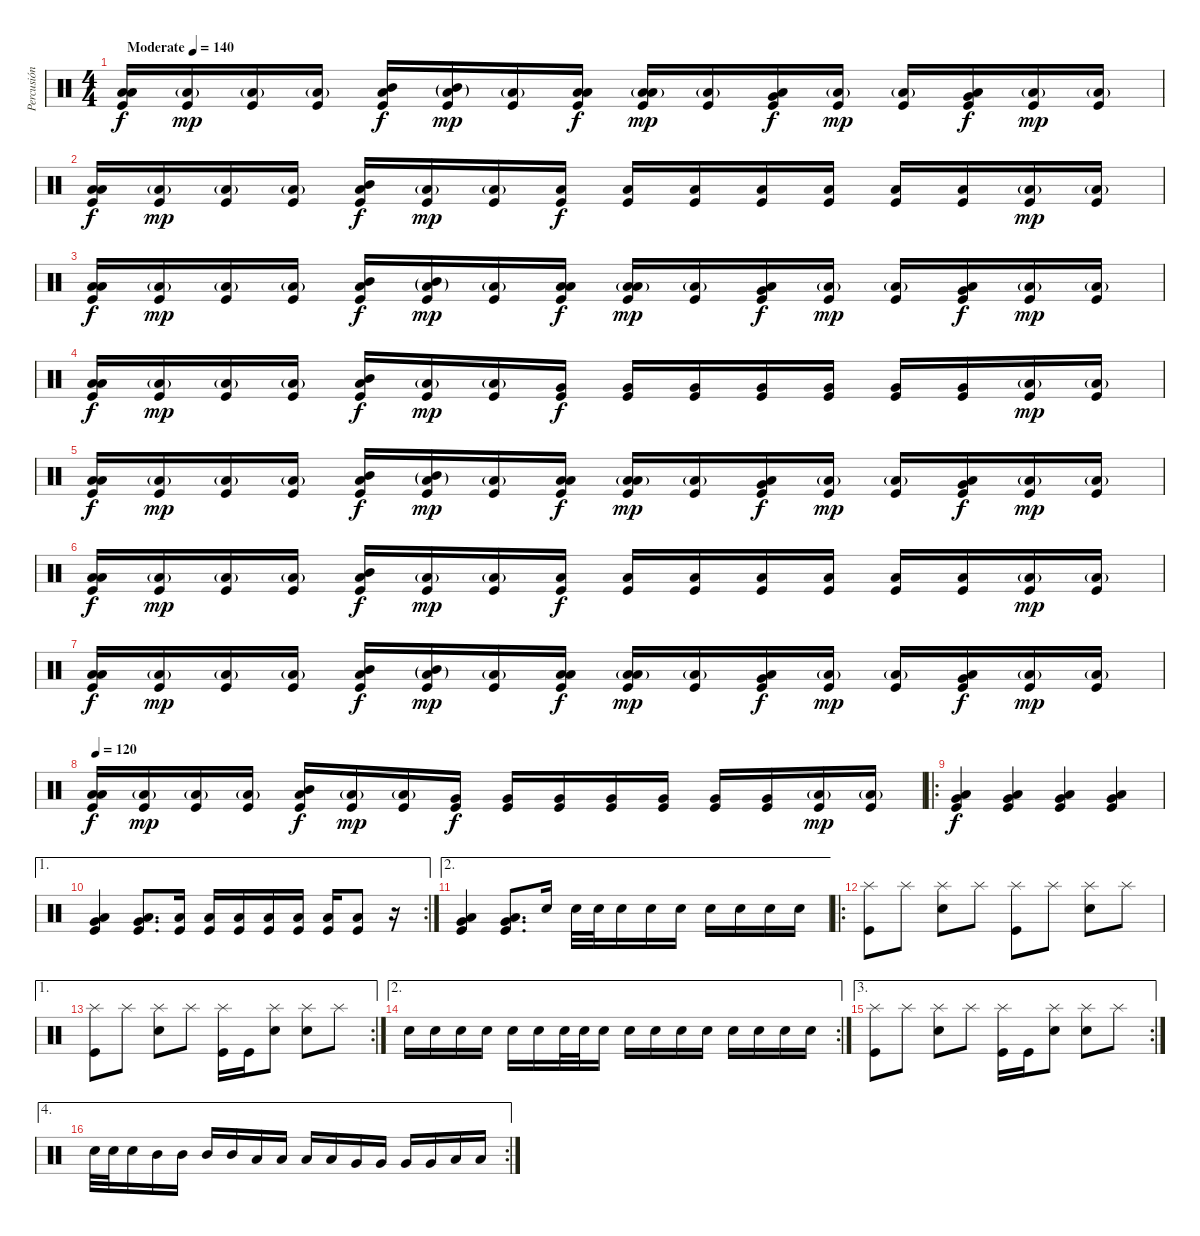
\track ("Percusión" "Percusión") {instrument percussion}
\staff {score}
\articulation defaults
\ts (4 4)
\tempo (140 "Moderate")
\clef neutral
\ks c
("Low Floor Tom (hit)" "Low Floor Tom (hit)" "Kick (hit)").16{bd 480 dy f} ("Low Floor Tom (hit)"{g} "Kick (hit)").16{dy mp} ("Low Floor Tom (hit)"{g} "Kick (hit)").16 ("Low Floor Tom (hit)"{g} "Kick (hit)").16 ("Mid Tom (hit)" "Low Floor Tom (hit)" "Kick (hit)").16{bd 480 dy f} ("Mid Tom (hit)"{g} "Low Floor Tom (hit)"{g} "Kick (hit)").16{dy mp} ("Low Floor Tom (hit)"{g} "Kick (hit)").16 ("Low Tom (hit)" "Low Floor Tom (hit)" "Kick (hit)").16{bd 480 dy f} ("Low Tom (hit)"{g} "Low Floor Tom (hit)" "Kick (hit)").16{dy mp} ("Low Floor Tom (hit)"{g} "Kick (hit)").16 ("Very Low Tom (hit)" "Low Floor Tom (hit)" "Kick (hit)").16{bd 480 dy f} ("Low Floor Tom (hit)"{g} "Kick (hit)").16{dy mp} ("Low Floor Tom (hit)"{g} "Kick (hit)").16 ("Very Low Tom (hit)" "Low Floor Tom (hit)" "Kick (hit)").16{bd 480 dy f} ("Low Floor Tom (hit)"{g} "Kick (hit)").16{dy mp} ("Low Floor Tom (hit)"{g} "Kick (hit)").16 |
("Low Floor Tom (hit)" "Low Floor Tom (hit)" "Kick (hit)").16{bd 480 dy f} ("Low Floor Tom (hit)"{g} "Kick (hit)").16{dy mp} ("Low Floor Tom (hit)"{g} "Kick (hit)").16 ("Low Floor Tom (hit)"{g} "Kick (hit)").16 ("Mid Tom (hit)" "Low Floor Tom (hit)" "Kick (hit)").16{bd 480 dy f} ("Low Floor Tom (hit)"{g} "Kick (hit)").16{dy mp} ("Low Floor Tom (hit)"{g} "Kick (hit)").16 ("Low Floor Tom (hit)" "Kick (hit)").16{dy f} ("Low Floor Tom (hit)" "Kick (hit)").16 ("Low Floor Tom (hit)" "Kick (hit)").16 ("Low Floor Tom (hit)" "Kick (hit)").16 ("Low Floor Tom (hit)" "Kick (hit)").16 ("Low Floor Tom (hit)" "Kick (hit)").16 ("Low Floor Tom (hit)" "Kick (hit)").16 ("Low Floor Tom (hit)"{g} "Kick (hit)").16{dy mp} ("Low Floor Tom (hit)"{g} "Kick (hit)").16 |
("Low Floor Tom (hit)" "Low Floor Tom (hit)" "Kick (hit)").16{bd 480 dy f} ("Low Floor Tom (hit)"{g} "Kick (hit)").16{dy mp} ("Low Floor Tom (hit)"{g} "Kick (hit)").16 ("Low Floor Tom (hit)"{g} "Kick (hit)").16 ("Mid Tom (hit)" "Low Floor Tom (hit)" "Kick (hit)").16{bd 480 dy f} ("Mid Tom (hit)"{g} "Low Floor Tom (hit)"{g} "Kick (hit)").16{dy mp} ("Low Floor Tom (hit)"{g} "Kick (hit)").16 ("Low Tom (hit)" "Low Floor Tom (hit)" "Kick (hit)").16{bd 480 dy f} ("Low Tom (hit)"{g} "Low Floor Tom (hit)" "Kick (hit)").16{dy mp} ("Low Floor Tom (hit)"{g} "Kick (hit)").16 ("Very Low Tom (hit)" "Low Floor Tom (hit)" "Kick (hit)").16{bd 480 dy f} ("Low Floor Tom (hit)"{g} "Kick (hit)").16{dy mp} ("Low Floor Tom (hit)"{g} "Kick (hit)").16 ("Very Low Tom (hit)" "Low Floor Tom (hit)" "Kick (hit)").16{bd 480 dy f} ("Low Floor Tom (hit)"{g} "Kick (hit)").16{dy mp} ("Low Floor Tom (hit)"{g} "Kick (hit)").16 |
("Low Floor Tom (hit)" "Low Floor Tom (hit)" "Kick (hit)").16{bd 480 dy f} ("Low Floor Tom (hit)"{g} "Kick (hit)").16{dy mp} ("Low Floor Tom (hit)"{g} "Kick (hit)").16 ("Low Floor Tom (hit)"{g} "Kick (hit)").16 ("Mid Tom (hit)" "Low Floor Tom (hit)" "Kick (hit)").16{bd 480 dy f} ("Low Floor Tom (hit)"{g} "Kick (hit)").16{dy mp} ("Low Floor Tom (hit)"{g} "Kick (hit)").16 ("Very Low Tom (hit)" "Kick (hit)").16{dy f} ("Very Low Tom (hit)" "Kick (hit)").16 ("Very Low Tom (hit)" "Kick (hit)").16 ("Very Low Tom (hit)" "Kick (hit)").16 ("Very Low Tom (hit)" "Kick (hit)").16 ("Very Low Tom (hit)" "Kick (hit)").16 ("Very Low Tom (hit)" "Kick (hit)").16 ("Low Floor Tom (hit)"{g} "Kick (hit)").16{dy mp} ("Low Floor Tom (hit)"{g} "Kick (hit)").16 |
("Low Floor Tom (hit)" "Low Floor Tom (hit)" "Kick (hit)").16{bd 480 dy f} ("Low Floor Tom (hit)"{g} "Kick (hit)").16{dy mp} ("Low Floor Tom (hit)"{g} "Kick (hit)").16 ("Low Floor Tom (hit)"{g} "Kick (hit)").16 ("Mid Tom (hit)" "Low Floor Tom (hit)" "Kick (hit)").16{bd 480 dy f} ("Mid Tom (hit)"{g} "Low Floor Tom (hit)"{g} "Kick (hit)").16{dy mp} ("Low Floor Tom (hit)"{g} "Kick (hit)").16 ("Low Tom (hit)" "Low Floor Tom (hit)" "Kick (hit)").16{bd 480 dy f} ("Low Tom (hit)"{g} "Low Floor Tom (hit)" "Kick (hit)").16{dy mp} ("Low Floor Tom (hit)"{g} "Kick (hit)").16 ("Very Low Tom (hit)" "Low Floor Tom (hit)" "Kick (hit)").16{bd 480 dy f} ("Low Floor Tom (hit)"{g} "Kick (hit)").16{dy mp} ("Low Floor Tom (hit)"{g} "Kick (hit)").16 ("Very Low Tom (hit)" "Low Floor Tom (hit)" "Kick (hit)").16{bd 480 dy f} ("Low Floor Tom (hit)"{g} "Kick (hit)").16{dy mp} ("Low Floor Tom (hit)"{g} "Kick (hit)").16 |
("Low Floor Tom (hit)" "Low Floor Tom (hit)" "Kick (hit)").16{bd 480 dy f} ("Low Floor Tom (hit)"{g} "Kick (hit)").16{dy mp} ("Low Floor Tom (hit)"{g} "Kick (hit)").16 ("Low Floor Tom (hit)"{g} "Kick (hit)").16 ("Mid Tom (hit)" "Low Floor Tom (hit)" "Kick (hit)").16{bd 480 dy f} ("Low Floor Tom (hit)"{g} "Kick (hit)").16{dy mp} ("Low Floor Tom (hit)"{g} "Kick (hit)").16 ("Low Floor Tom (hit)" "Kick (hit)").16{dy f} ("Low Floor Tom (hit)" "Kick (hit)").16 ("Low Floor Tom (hit)" "Kick (hit)").16 ("Low Floor Tom (hit)" "Kick (hit)").16 ("Low Floor Tom (hit)" "Kick (hit)").16 ("Low Floor Tom (hit)" "Kick (hit)").16 ("Low Floor Tom (hit)" "Kick (hit)").16 ("Low Floor Tom (hit)"{g} "Kick (hit)").16{dy mp} ("Low Floor Tom (hit)"{g} "Kick (hit)").16 |
("Low Floor Tom (hit)" "Low Floor Tom (hit)" "Kick (hit)").16{bd 480 dy f} ("Low Floor Tom (hit)"{g} "Kick (hit)").16{dy mp} ("Low Floor Tom (hit)"{g} "Kick (hit)").16 ("Low Floor Tom (hit)"{g} "Kick (hit)").16 ("Mid Tom (hit)" "Low Floor Tom (hit)" "Kick (hit)").16{bd 480 dy f} ("Mid Tom (hit)"{g} "Low Floor Tom (hit)"{g} "Kick (hit)").16{dy mp} ("Low Floor Tom (hit)"{g} "Kick (hit)").16 ("Low Tom (hit)" "Low Floor Tom (hit)" "Kick (hit)").16{bd 480 dy f} ("Low Tom (hit)"{g} "Low Floor Tom (hit)" "Kick (hit)").16{dy mp} ("Low Floor Tom (hit)"{g} "Kick (hit)").16 ("Very Low Tom (hit)" "Low Floor Tom (hit)" "Kick (hit)").16{bd 480 dy f} ("Low Floor Tom (hit)"{g} "Kick (hit)").16{dy mp} ("Low Floor Tom (hit)"{g} "Kick (hit)").16 ("Very Low Tom (hit)" "Low Floor Tom (hit)" "Kick (hit)").16{bd 480 dy f} ("Low Floor Tom (hit)"{g} "Kick (hit)").16{dy mp} ("Low Floor Tom (hit)"{g} "Kick (hit)").16 |
\tempo 120
("Low Floor Tom (hit)" "Low Floor Tom (hit)" "Kick (hit)").16{bd 480 dy f} ("Low Floor Tom (hit)"{g} "Kick (hit)").16{dy mp} ("Low Floor Tom (hit)"{g} "Kick (hit)").16 ("Low Floor Tom (hit)"{g} "Kick (hit)").16 ("Mid Tom (hit)" "Low Floor Tom (hit)" "Kick (hit)").16{bd 480 dy f} ("Low Floor Tom (hit)"{g} "Kick (hit)").16{dy mp} ("Low Floor Tom (hit)"{g} "Kick (hit)").16 ("Very Low Tom (hit)" "Kick (hit)").16{dy f} ("Very Low Tom (hit)" "Kick (hit)").16 ("Very Low Tom (hit)" "Kick (hit)").16 ("Very Low Tom (hit)" "Kick (hit)").16 ("Very Low Tom (hit)" "Kick (hit)").16 ("Very Low Tom (hit)" "Kick (hit)").16 ("Very Low Tom (hit)" "Kick (hit)").16 ("Low Floor Tom (hit)"{g} "Kick (hit)").16{dy mp} ("Low Floor Tom (hit)"{g} "Kick (hit)").16 |
\ro
("Very Low Tom (hit)" "Low Floor Tom (hit)" "Kick (hit)").4{dy f} ("Very Low Tom (hit)" "Low Floor Tom (hit)" "Kick (hit)").4 ("Very Low Tom (hit)" "Low Floor Tom (hit)" "Kick (hit)").4 ("Very Low Tom (hit)" "Low Floor Tom (hit)" "Kick (hit)").4 |
\ae 1
\rc 2
("Very Low Tom (hit)" "Low Floor Tom (hit)" "Kick (hit)").4 ("Very Low Tom (hit)" "Low Floor Tom (hit)" "Kick (hit)").8{d} ("Low Floor Tom (hit)" "Kick (hit)").16 ("Low Floor Tom (hit)" "Kick (hit)").16 ("Low Floor Tom (hit)" "Kick (hit)").16 ("Low Floor Tom (hit)" "Kick (hit)").16 ("Low Floor Tom (hit)" "Kick (hit)").16 ("Low Floor Tom (hit)" "Kick (hit)").16 ("Low Floor Tom (hit)" "Kick (hit)").8 r.16 |
\ae 2
("Very Low Tom (hit)" "Low Floor Tom (hit)" "Kick (hit)").4 ("Very Low Tom (hit)" "Low Floor Tom (hit)" "Kick (hit)").8{d} "Electric Snare (hit)".16 "Electric Snare (hit)".32 "Electric Snare (hit)".32 "Electric Snare (hit)".16 "Electric Snare (hit)".16 "Electric Snare (hit)".16 "Electric Snare (hit)".16 "Electric Snare (hit)".16 "Electric Snare (hit)".16 "Electric Snare (hit)".16 |
\ro
("Splash (hit)" "Kick (hit)").8 "Splash (hit)".8 ("Electric Snare (hit)" "Splash (hit)").8 "Splash (hit)".8 ("Splash (hit)" "Kick (hit)").8 "Splash (hit)".8 ("Electric Snare (hit)" "Splash (hit)").8 "Splash (hit)".8 |
\ae 1
\rc 2
("Splash (hit)" "Kick (hit)").8 "Splash (hit)".8 ("Electric Snare (hit)" "Splash (hit)").8 "Splash (hit)".8 ("Splash (hit)" "Kick (hit)").16 "Kick (hit)".16 ("Electric Snare (hit)" "Splash (hit)").8 ("Electric Snare (hit)" "Splash (hit)").8 "Splash (hit)".8 |
\ae 2
\rc 2 "Electric Snare (hit)".16 "Electric Snare (hit)".16 "Electric Snare (hit)".16 "Electric Snare (hit)".16 "Electric Snare (hit)".16 "Electric Snare (hit)".16 "Electric Snare (hit)".32 "Electric Snare (hit)".32 "Electric Snare (hit)".16 "Electric Snare (hit)".16 "Electric Snare (hit)".16 "Electric Snare (hit)".16 "Electric Snare (hit)".16 "Electric Snare (hit)".16 "Electric Snare (hit)".16 "Electric Snare (hit)".16 "Electric Snare (hit)".16
|
\ae 3
\rc 2
("Splash (hit)" "Kick (hit)").8 "Splash (hit)".8 ("Electric Snare (hit)" "Splash (hit)").8 "Splash (hit)".8 ("Splash (hit)" "Kick (hit)").16 "Kick (hit)".16 ("Electric Snare (hit)" "Splash (hit)").8 ("Electric Snare (hit)" "Splash (hit)").8 "Splash (hit)".8 |
\ae 4
\rc 2 "Electric Snare (hit)".32 "Electric Snare (hit)".32 "Electric Snare (hit)".16 "Mid Tom (hit)".16 "Mid Tom (hit)".16 "Mid Tom (hit)".16 "Mid Tom (hit)".16 "Low Tom (hit)".16 "Low Tom (hit)".16 "Low Tom (hit)".16 "Low Tom (hit)".16 "Very Low Tom (hit)".16 "Very Low Tom (hit)".16 "Very Low Tom (hit)".16 "Very Low Tom (hit)".16 "Low Floor Tom (hit)".16 "Low Floor Tom (hit)".16
